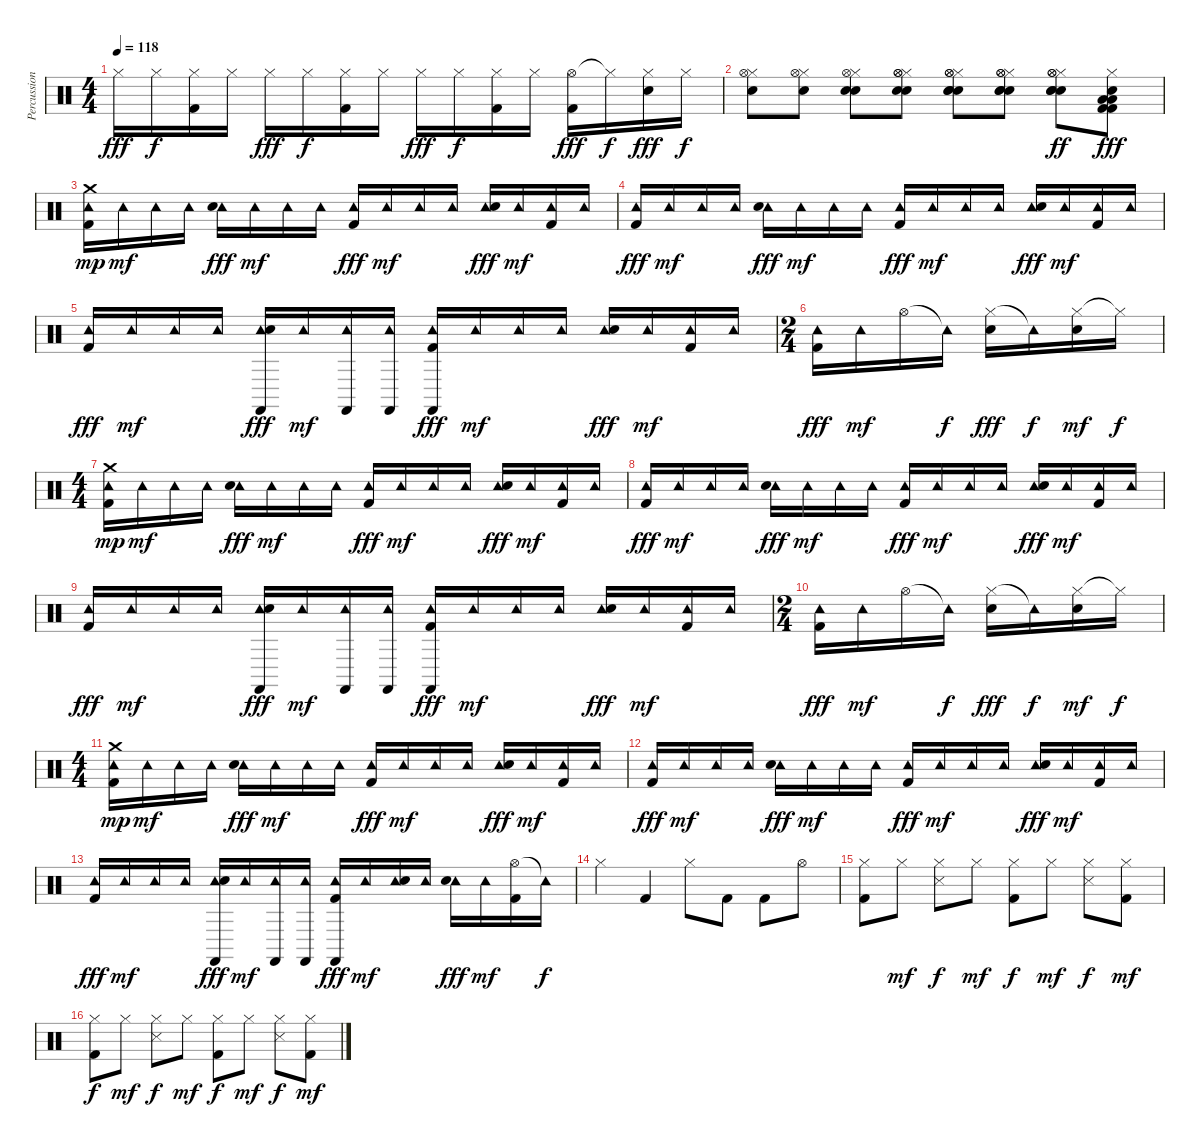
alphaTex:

\track ("Percussion" "Percussion") {instrument percussion}
\staff {score}
\articulation defaults
\ts (4 4)
\tempo 118
\clef neutral
\ks c "Hi-Hat (closed)".16{dy fff} "Hi-Hat (closed)".16{dy f}
("Hi-Hat (closed)" "Kick (hit) 2").16 "Hi-Hat (closed)".16 "Hi-Hat (closed)".16{dy fff} "Hi-Hat (closed)".16{dy f} ("Hi-Hat (closed)" "Kick (hit) 2").16 "Hi-Hat (closed)".16 "Hi-Hat (closed)".16{dy fff} "Hi-Hat (closed)".16{dy f} ("Hi-Hat (closed)" "Kick (hit) 2").16 "Hi-Hat (closed)".16 ("Hi-Hat (open)" "Kick (hit) 2").16{dy fff} "Hi-Hat (closed)"{t}.16{dy f} ("Hi-Hat (closed)" "Electric Snare (hit)").16{dy fff} "Hi-Hat (closed)".16{dy f} |
("Hi-Hat (closed)" "Electric Snare (hit)" "Hi-Hat (open)").8 ("Hi-Hat (closed)" "Electric Snare (hit)" "Hi-Hat (open)").8 ("Hi-Hat (closed)" "Electric Snare (hit)" "Hi-Hat (open)" "Electric Snare (hit)").8 ("Hi-Hat (closed)" "Electric Snare (hit)" "Hi-Hat (open)" "Electric Snare (hit)" "Hi-Hat (open)").8 ("Hi-Hat (closed)" "Electric Snare (hit)" "Hi-Hat (open)" "Electric Snare (hit)" "Hi-Hat (open)" "Electric Snare (hit)").8 ("Hi-Hat (closed)" "Electric Snare (hit)" "Hi-Hat (open)" "Electric Snare (hit)" "Hi-Hat (open)" "Electric Snare (hit)").8 ("Hi-Hat (closed)" "Electric Snare (hit)" "Hi-Hat (open)" "Electric Snare (hit)" "Hi-Hat (open)" "Electric Snare (hit)").8{dy ff} ("Hi-Hat (closed)" "Electric Snare (hit)" "Low Floor Tom (hit)" "Kick (hit) 2" "Kick (hit) 2" "Low Floor Tom (hit)").8{dy fff} |
("Tambourine (hit)" "Kick (hit) 2" "Crash medium (hit)").16{dy mp} "Tambourine (hit)".16{dy mf} "Tambourine (hit)".16 "Tambourine (hit)".16 ("Tambourine (hit)" "Electric Snare (hit)").16{dy fff} "Tambourine (hit)".16{dy mf} "Tambourine (hit)".16 "Tambourine (hit)".16 ("Tambourine (hit)" "Kick (hit) 2").16{dy fff} "Tambourine (hit)".16{dy mf} "Tambourine (hit)".16 "Tambourine (hit)".16 ("Tambourine (hit)" "Electric Snare (hit)").16{dy fff} "Tambourine (hit)".16{dy mf} ("Tambourine (hit)" "Kick (hit) 2").16 "Tambourine (hit)".16 |
("Tambourine (hit)" "Kick (hit) 2").16{dy fff} "Tambourine (hit)".16{dy mf} "Tambourine (hit)".16 "Tambourine (hit)".16 ("Tambourine (hit)" "Electric Snare (hit)").16{dy fff} "Tambourine (hit)".16{dy mf} "Tambourine (hit)".16 "Tambourine (hit)".16 ("Tambourine (hit)" "Kick (hit) 2").16{dy fff} "Tambourine (hit)".16{dy mf} "Tambourine (hit)".16 "Tambourine (hit)".16 ("Tambourine (hit)" "Electric Snare (hit)").16{dy fff} "Tambourine (hit)".16{dy mf} ("Tambourine (hit)" "Kick (hit) 2").16 "Tambourine (hit)".16 |
("Tambourine (hit)" "Kick (hit) 2").16{dy fff} "Tambourine (hit)".16{dy mf} "Tambourine (hit)".16 "Tambourine (hit)".16 ("Tambourine (hit)" "Electric Snare (hit)" "Castanets (hit)").16{dy fff} "Tambourine (hit)".16{dy mf} ("Tambourine (hit)" "Castanets (hit)").16 ("Tambourine (hit)" "Castanets (hit)").16 ("Tambourine (hit)" "Kick (hit) 2" "Castanets (hit)").16{dy fff} "Tambourine (hit)".16{dy mf} "Tambourine (hit)".16 "Tambourine (hit)".16 ("Tambourine (hit)" "Electric Snare (hit)").16{dy fff} "Tambourine (hit)".16{dy mf} ("Tambourine (hit)" "Kick (hit) 2").16 "Tambourine (hit)".16 |
\ts (2 4)
("Tambourine (hit)" "Kick (hit) 2").16{dy fff} "Tambourine (hit)".16{dy mf} "Hi-Hat (open)".16 "Tambourine (hit)"{t}.16{dy f} ("Hi-Hat (closed)" "Electric Snare (hit)").16{dy fff} "Tambourine (hit)"{t}.16{dy f} ("Hi-Hat (closed)" "Electric Snare (hit)").16{dy mf} "Hi-Hat (closed)"{t}.16{dy f} |
\ts (4 4)
("Tambourine (hit)" "Kick (hit) 2" "Crash medium (hit)").16{dy mp} "Tambourine (hit)".16{dy mf} "Tambourine (hit)".16 "Tambourine (hit)".16 ("Tambourine (hit)" "Electric Snare (hit)").16{dy fff} "Tambourine (hit)".16{dy mf} "Tambourine (hit)".16 "Tambourine (hit)".16 ("Tambourine (hit)" "Kick (hit) 2").16{dy fff} "Tambourine (hit)".16{dy mf} "Tambourine (hit)".16 "Tambourine (hit)".16 ("Tambourine (hit)" "Electric Snare (hit)").16{dy fff} "Tambourine (hit)".16{dy mf} ("Tambourine (hit)" "Kick (hit) 2").16 "Tambourine (hit)".16 |
("Tambourine (hit)" "Kick (hit) 2").16{dy fff} "Tambourine (hit)".16{dy mf} "Tambourine (hit)".16 "Tambourine (hit)".16 ("Tambourine (hit)" "Electric Snare (hit)").16{dy fff} "Tambourine (hit)".16{dy mf} "Tambourine (hit)".16 "Tambourine (hit)".16 ("Tambourine (hit)" "Kick (hit) 2").16{dy fff} "Tambourine (hit)".16{dy mf} "Tambourine (hit)".16 "Tambourine (hit)".16 ("Tambourine (hit)" "Electric Snare (hit)").16{dy fff} "Tambourine (hit)".16{dy mf} ("Tambourine (hit)" "Kick (hit) 2").16 "Tambourine (hit)".16 |
("Tambourine (hit)" "Kick (hit) 2").16{dy fff} "Tambourine (hit)".16{dy mf} "Tambourine (hit)".16 "Tambourine (hit)".16 ("Tambourine (hit)" "Electric Snare (hit)" "Castanets (hit)").16{dy fff} "Tambourine (hit)".16{dy mf} ("Tambourine (hit)" "Castanets (hit)").16 ("Tambourine (hit)" "Castanets (hit)").16 ("Tambourine (hit)" "Kick (hit) 2" "Castanets (hit)").16{dy fff} "Tambourine (hit)".16{dy mf} "Tambourine (hit)".16 "Tambourine (hit)".16 ("Tambourine (hit)" "Electric Snare (hit)").16{dy fff} "Tambourine (hit)".16{dy mf} ("Tambourine (hit)" "Kick (hit) 2").16 "Tambourine (hit)".16 |
\ts (2 4)
("Tambourine (hit)" "Kick (hit) 2").16{dy fff} "Tambourine (hit)".16{dy mf} "Hi-Hat (open)".16 "Tambourine (hit)"{t}.16{dy f} ("Hi-Hat (closed)" "Electric Snare (hit)").16{dy fff} "Tambourine (hit)"{t}.16{dy f} ("Hi-Hat (closed)" "Electric Snare (hit)").16{dy mf} "Hi-Hat (closed)"{t}.16{dy f} |
\ts (4 4)
("Tambourine (hit)" "Kick (hit) 2" "Crash medium (hit)").16{dy mp} "Tambourine (hit)".16{dy mf} "Tambourine (hit)".16 "Tambourine (hit)".16 ("Tambourine (hit)" "Electric Snare (hit)").16{dy fff} "Tambourine (hit)".16{dy mf} "Tambourine (hit)".16 "Tambourine (hit)".16 ("Tambourine (hit)" "Kick (hit) 2").16{dy fff} "Tambourine (hit)".16{dy mf} "Tambourine (hit)".16 "Tambourine (hit)".16 ("Tambourine (hit)" "Electric Snare (hit)").16{dy fff} "Tambourine (hit)".16{dy mf} ("Tambourine (hit)" "Kick (hit) 2").16 "Tambourine (hit)".16 |
("Tambourine (hit)" "Kick (hit) 2").16{dy fff} "Tambourine (hit)".16{dy mf} "Tambourine (hit)".16 "Tambourine (hit)".16 ("Tambourine (hit)" "Electric Snare (hit)").16{dy fff} "Tambourine (hit)".16{dy mf} "Tambourine (hit)".16 "Tambourine (hit)".16 ("Tambourine (hit)" "Kick (hit) 2").16{dy fff} "Tambourine (hit)".16{dy mf} "Tambourine (hit)".16 "Tambourine (hit)".16 ("Tambourine (hit)" "Electric Snare (hit)").16{dy fff} "Tambourine (hit)".16{dy mf} ("Tambourine (hit)" "Kick (hit) 2").16 "Tambourine (hit)".16 |
("Tambourine (hit)" "Kick (hit) 2").16{dy fff} "Tambourine (hit)".16{dy mf} "Tambourine (hit)".16 "Tambourine (hit)".16 ("Tambourine (hit)" "Electric Snare (hit)" "Castanets (hit)").16{dy fff} "Tambourine (hit)".16{dy mf} ("Tambourine (hit)" "Castanets (hit)").16 ("Tambourine (hit)" "Castanets (hit)").16 ("Tambourine (hit)" "Kick (hit) 2" "Castanets (hit)").16{dy fff} "Tambourine (hit)".16{dy mf} ("Tambourine (hit)" "Electric Snare (hit)").16 "Tambourine (hit)".16 ("Tambourine (hit)" "Electric Snare (hit)").16{dy fff} "Tambourine (hit)".16{dy mf} ("Hi-Hat (open)" "Kick (hit) 2").16 "Tambourine (hit)"{t}.16{dy f} |
"Hi-Hat (closed)".4 "Kick (hit) 2".4 "Hi-Hat (closed)".8 "Kick (hit) 2".8 "Kick (hit) 2".8 "Hi-Hat (open)".8 |
("Hi-Hat (closed)" "Kick (hit) 2").8 "Hi-Hat (closed)".8{dy mf} ("Hi-Hat (closed)" "Snare (side stick) 3").8{dy f} "Hi-Hat (closed)".8{dy mf} ("Hi-Hat (closed)" "Kick (hit) 2").8{dy f} "Hi-Hat (closed)".8{dy mf} ("Hi-Hat (closed)" "Snare (side stick) 3").8{dy f} ("Hi-Hat (closed)" "Kick (hit) 2").8{dy mf} |
("Hi-Hat (closed)" "Kick (hit) 2").8{dy f} "Hi-Hat (closed)".8{dy mf} ("Hi-Hat (closed)" "Snare (side stick) 3").8{dy f} "Hi-Hat (closed)".8{dy mf} ("Hi-Hat (closed)" "Kick (hit) 2").8{dy f} "Hi-Hat (closed)".8{dy mf} ("Hi-Hat (closed)" "Snare (side stick) 3").8{dy f} ("Hi-Hat (closed)" "Kick (hit) 2").8{dy mf}
